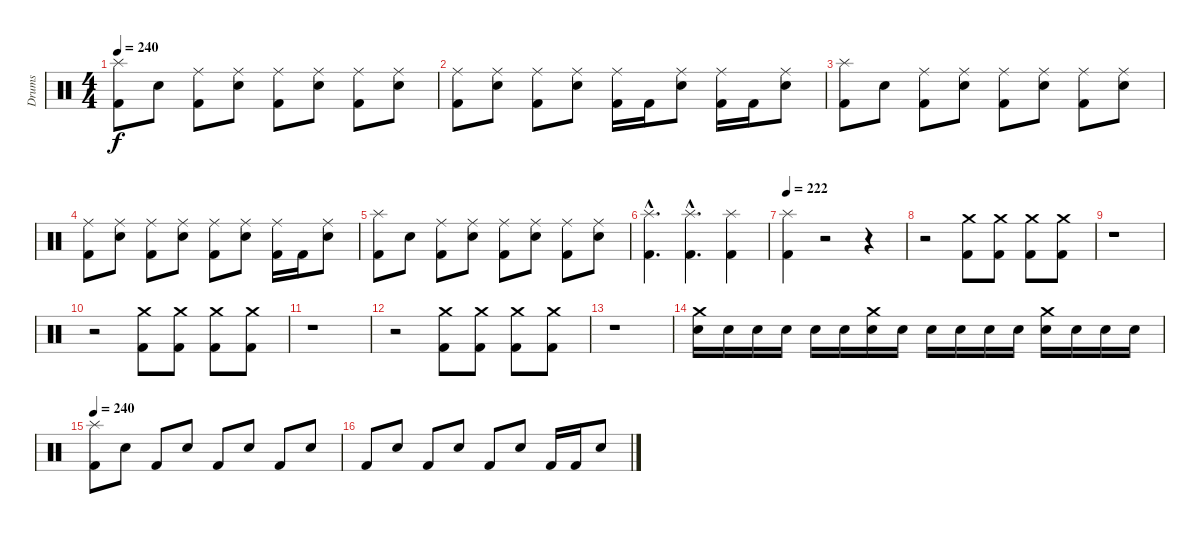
\track ("Drums" "Drums") {instrument percussion}
\staff {score}
\articulation defaults
\ts (4 4)
\tempo 240
\clef neutral
\ks c
("Splash (hit)" "Kick (hit) 2").8{dy f} "Electric Snare (hit)".8 ("Ride (middle)" "Kick (hit) 2").8 ("Ride (middle)" "Electric Snare (hit)").8 ("Ride (middle)" "Kick (hit) 2").8 ("Ride (middle)" "Electric Snare (hit)").8 ("Ride (middle)" "Kick (hit) 2").8 ("Ride (middle)" "Electric Snare (hit)").8 |
("Ride (middle)" "Kick (hit) 2").8 ("Ride (middle)" "Electric Snare (hit)").8 ("Ride (middle)" "Kick (hit) 2").8 ("Ride (middle)" "Electric Snare (hit)").8 ("Ride (middle)" "Kick (hit) 2").16 "Kick (hit) 2".16 ("Ride (middle)" "Electric Snare (hit)").8 ("Ride (middle)" "Kick (hit) 2").16 "Kick (hit) 2".16 ("Ride (middle)" "Electric Snare (hit)").8 |
("Splash (hit)" "Kick (hit) 2").8 "Electric Snare (hit)".8 ("Ride (middle)" "Kick (hit) 2").8 ("Ride (middle)" "Electric Snare (hit)").8 ("Ride (middle)" "Kick (hit) 2").8 ("Ride (middle)" "Electric Snare (hit)").8 ("Ride (middle)" "Kick (hit) 2").8 ("Ride (middle)" "Electric Snare (hit)").8 |
("Ride (middle)" "Kick (hit) 2").8 ("Ride (middle)" "Electric Snare (hit)").8 ("Ride (middle)" "Kick (hit) 2").8 ("Ride (middle)" "Electric Snare (hit)").8 ("Ride (middle)" "Kick (hit) 2").8 ("Ride (middle)" "Electric Snare (hit)").8 ("Ride (middle)" "Kick (hit) 2").16 "Kick (hit) 2".16 ("Ride (middle)" "Electric Snare (hit)").8 |
("Splash (hit)" "Kick (hit) 2").8 "Electric Snare (hit)".8 ("Ride (middle)" "Kick (hit) 2").8 ("Ride (middle)" "Electric Snare (hit)").8 ("Ride (middle)" "Kick (hit) 2").8 ("Ride (middle)" "Electric Snare (hit)").8 ("Ride (middle)" "Kick (hit) 2").8 ("Ride (middle)" "Electric Snare (hit)").8 |
("Splash (hit)"{hac} "Kick (hit) 2"{hac}).4{d} ("Splash (hit)"{hac} "Kick (hit) 2"{hac}).4{d} ("Splash (hit)" "Kick (hit) 2").4 |
\tempo 222
("Splash (hit)" "Kick (hit) 2").4 r.2 r.4 |
r.2 ("Crash medium (hit)" "Kick (hit) 2").8 ("Crash medium (hit)" "Kick (hit) 2").8 ("Crash medium (hit)" "Kick (hit) 2").8 ("Crash medium (hit)" "Kick (hit) 2").8 |
r.1 |
r.2 ("Crash medium (hit)" "Kick (hit) 2").8 ("Crash medium (hit)" "Kick (hit) 2").8 ("Crash medium (hit)" "Kick (hit) 2").8 ("Crash medium (hit)" "Kick (hit) 2").8 |
r.1 |
r.2 ("Crash medium (hit)" "Kick (hit) 2").8 ("Crash medium (hit)" "Kick (hit) 2").8 ("Crash medium (hit)" "Kick (hit) 2").8 ("Crash medium (hit)" "Kick (hit) 2").8 |
r.1 |
("Crash medium (hit)" "Electric Snare (hit)").16 "Electric Snare (hit)".16 "Electric Snare (hit)".16 "Electric Snare (hit)".16 "Electric Snare (hit)".16 "Electric Snare (hit)".16 ("Crash medium (hit)" "Electric Snare (hit)").16 "Electric Snare (hit)".16 "Electric Snare (hit)".16 "Electric Snare (hit)".16 "Electric Snare (hit)".16 "Electric Snare (hit)".16 ("Crash medium (hit)" "Electric Snare (hit)").16 "Electric Snare (hit)".16 "Electric Snare (hit)".16 "Electric Snare (hit)".16 |
\tempo 240
("Splash (hit)" "Kick (hit) 2").8 "Electric Snare (hit)".8 "Kick (hit) 2".8 "Electric Snare (hit)".8 "Kick (hit) 2".8 "Electric Snare (hit)".8 "Kick (hit) 2".8 "Electric Snare (hit)".8 |
"Kick (hit) 2".8 "Electric Snare (hit)".8 "Kick (hit) 2".8 "Electric Snare (hit)".8 "Kick (hit) 2".8 "Electric Snare (hit)".8 "Kick (hit) 2".16 "Kick (hit) 2".16 "Electric Snare (hit)".8
